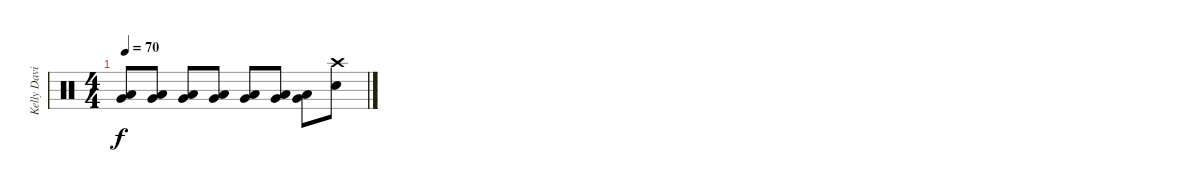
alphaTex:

\track ("Kelly David Smith" "Kelly Davi") {instrument percussion}
\staff {score}
\articulation defaults
\ts (4 4)
\tempo 70
\clef neutral
\ks c
("Low Tom (hit)" "Very Low Tom (hit)").8{dy f} ("Low Tom (hit)" "Very Low Tom (hit)").8 ("Low Tom (hit)" "Very Low Tom (hit)").8 ("Low Tom (hit)" "Very Low Tom (hit)").8 ("Low Tom (hit)" "Very Low Tom (hit)").8 ("Low Tom (hit)" "Very Low Tom (hit)").8 ("Low Tom (hit)" "Very Low Tom (hit)").8 ("Crash high (hit)" "Electric Snare (hit)").8
